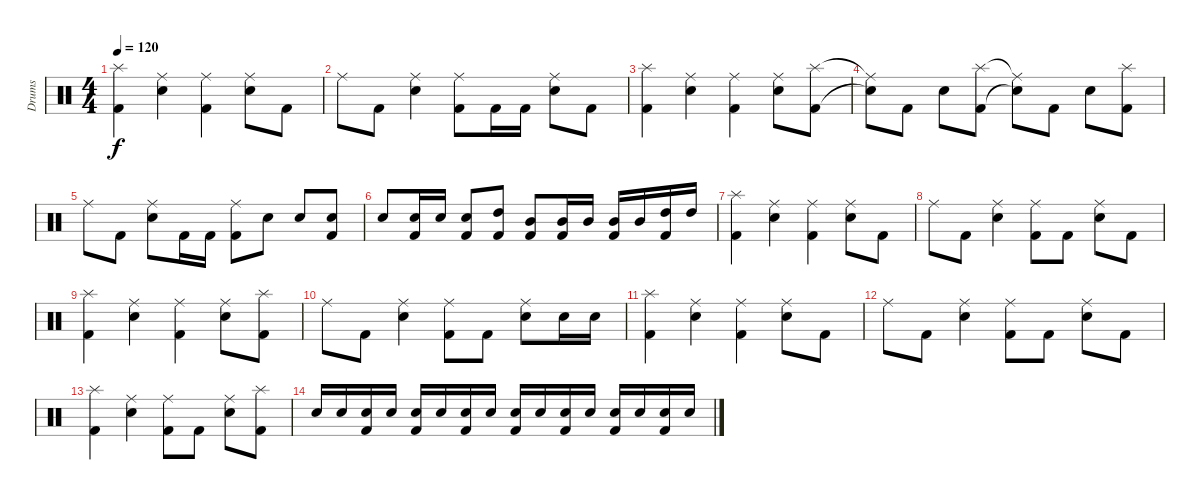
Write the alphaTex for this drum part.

\track ("Drums" "Drums") {instrument percussion}
\staff {score}
\articulation defaults
\ts (4 4)
\tempo 120
\clef neutral
\ks c
("Splash (hit)" "Kick (hit) 2").4{dy f} ("Ride (middle)" "Electric Snare (hit)").4 ("Ride (middle)" "Kick (hit) 2").4 ("Ride (middle)" "Electric Snare (hit)").8 "Kick (hit) 2".8 |
"Ride (middle)".8 "Kick (hit) 2".8 ("Ride (middle)" "Electric Snare (hit)").4 ("Ride (middle)" "Kick (hit) 2").8 "Kick (hit) 2".16 "Kick (hit) 2".16 ("Ride (middle)" "Electric Snare (hit)").8 "Kick (hit) 2".8 |
("Splash (hit)" "Kick (hit) 2").4 ("Ride (middle)" "Electric Snare (hit)").4 ("Ride (middle)" "Kick (hit) 2").4 ("Ride (middle)" "Electric Snare (hit)").8 ("Splash (hit)" "Kick (hit) 2").8 |
("Ride (middle)"{t} "Snare (hit)"{t}).8 "Kick (hit) 2".8 "Electric Snare (hit)".8 ("Splash (hit)" "Kick (hit) 2").8 ("Ride (middle)"{t} "Snare (hit)"{t}).8 "Kick (hit) 2".8 "Electric Snare (hit)".8 ("Splash (hit)" "Kick (hit) 2").8 |
"Ride (middle)".8 "Kick (hit) 2".8 ("Ride (middle)" "Electric Snare (hit)").8 "Kick (hit) 2".16 "Kick (hit) 2".16 ("Ride (middle)" "Kick (hit) 2").8 "Electric Snare (hit)".8 "Electric Snare (hit)".8 ("Electric Snare (hit)" "Kick (hit) 2").8 |
"Electric Snare (hit)".8 ("Electric Snare (hit)" "Kick (hit) 2").16 "Electric Snare (hit)".16 ("Electric Snare (hit)" "Kick (hit) 2").8 ("High Tom (hit)" "Kick (hit) 2").8 ("Mid Tom (hit)" "Kick (hit) 2").8 ("Mid Tom (hit)" "Kick (hit) 2").16 "Mid Tom (hit)".16 ("Mid Tom (hit)" "Kick (hit) 2").16 "Mid Tom (hit)".16 ("High Tom (hit)" "Kick (hit) 2").16 "High Tom (hit)".16 |
("Splash (hit)" "Kick (hit) 2").4{volume 6} ("Ride (middle)" "Electric Snare (hit)").4 ("Ride (middle)" "Kick (hit) 2").4 ("Ride (middle)" "Electric Snare (hit)").8 "Kick (hit) 2".8 |
"Ride (middle)".8 "Kick (hit) 2".8 ("Ride (middle)" "Electric Snare (hit)").4 ("Ride (middle)" "Kick (hit) 2").8 "Kick (hit) 2".8 ("Ride (middle)" "Electric Snare (hit)").8 "Kick (hit) 2".8 |
("Splash (hit)" "Kick (hit) 2").4{volume 2} ("Ride (middle)" "Electric Snare (hit)").4 ("Ride (middle)" "Kick (hit) 2").4 ("Ride (middle)" "Electric Snare (hit)").8 ("Splash (hit)" "Kick (hit) 2").8 |
"Ride (middle)".8 "Kick (hit) 2".8 ("Ride (middle)" "Electric Snare (hit)").4 ("Ride (middle)" "Kick (hit) 2").8 "Kick (hit) 2".8 ("Ride (middle)" "Electric Snare (hit)").8 "Electric Snare (hit)".16 "Electric Snare (hit)".16 |
("Splash (hit)" "Kick (hit) 2").4{volume 1} ("Ride (middle)" "Electric Snare (hit)").4 ("Ride (middle)" "Kick (hit) 2").4 ("Ride (middle)" "Electric Snare (hit)").8 "Kick (hit) 2".8 |
"Ride (middle)".8 "Kick (hit) 2".8 ("Ride (middle)" "Electric Snare (hit)").4 ("Ride (middle)" "Kick (hit) 2").8 "Kick (hit) 2".8 ("Ride (middle)" "Electric Snare (hit)").8 "Kick (hit) 2".8 |
("Splash (hit)" "Kick (hit) 2").4{volume 0} ("Ride (middle)" "Electric Snare (hit)").4 ("Ride (middle)" "Kick (hit) 2").8 "Kick (hit) 2".8 ("Ride (middle)" "Electric Snare (hit)").8 ("Splash (hit)" "Kick (hit) 2").8 |
"Electric Snare (hit)".16 "Electric Snare (hit)".16 ("Electric Snare (hit)" "Kick (hit) 2").16 "Electric Snare (hit)".16 ("Electric Snare (hit)" "Kick (hit) 2").16 "Electric Snare (hit)".16 ("Electric Snare (hit)" "Kick (hit) 2").16 "Electric Snare (hit)".16 ("Electric Snare (hit)" "Kick (hit) 2").16 "Electric Snare (hit)".16 ("Electric Snare (hit)" "Kick (hit) 2").16 "Electric Snare (hit)".16 ("Electric Snare (hit)" "Kick (hit) 2").16 "Electric Snare (hit)".16 ("Electric Snare (hit)" "Kick (hit) 2").16 "Electric Snare (hit)".16
